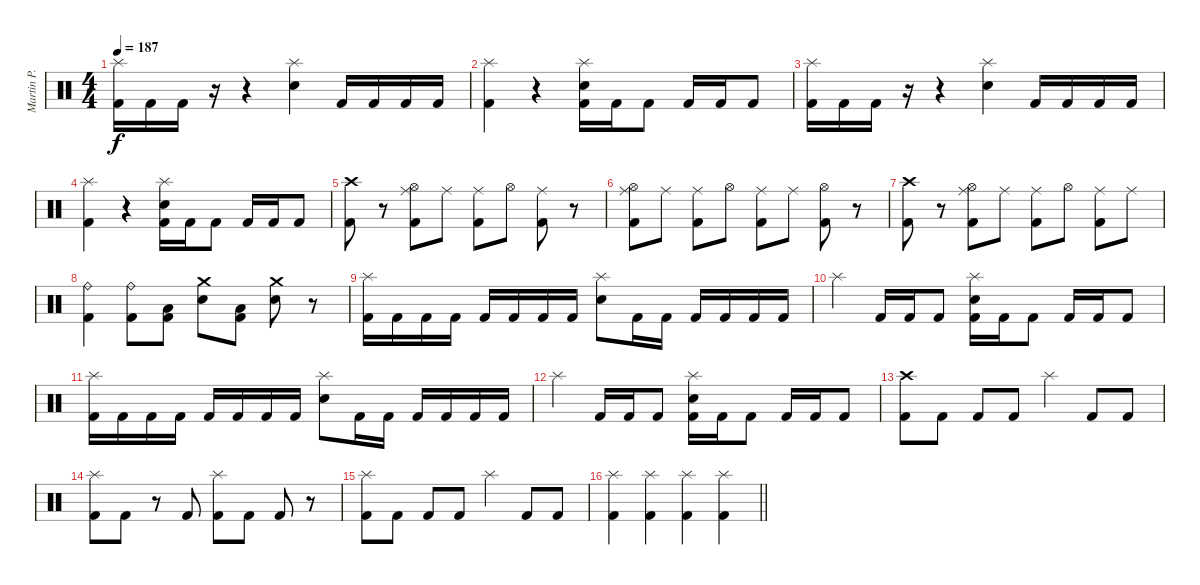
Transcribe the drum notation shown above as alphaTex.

\track ("Martin P." "Martin P.") {instrument percussion}
\staff {score}
\articulation defaults
\ts (4 4)
\tempo 187
\clef neutral
\ks c
("Splash (hit)" "Kick (hit) 2").16{dy f} "Kick (hit) 2".16 "Kick (hit) 2".16 r.16 r.4 ("Splash (hit)" "Electric Snare (hit)").4 "Kick (hit) 2".16 "Kick (hit) 2".16 "Kick (hit) 2".16 "Kick (hit) 2".16 |
("Splash (hit)" "Kick (hit) 2").4 r.4 ("Splash (hit)" "Electric Snare (hit)" "Kick (hit) 2").16 "Kick (hit) 2".16 "Kick (hit) 2".8 "Kick (hit) 2".16 "Kick (hit) 2".16 "Kick (hit) 2".8 |
("Splash (hit)" "Kick (hit) 2").16 "Kick (hit) 2".16 "Kick (hit) 2".16 r.16 r.4 ("Splash (hit)" "Electric Snare (hit)").4 "Kick (hit) 2".16 "Kick (hit) 2".16 "Kick (hit) 2".16 "Kick (hit) 2".16 |
("Splash (hit)" "Kick (hit) 2").4 r.4 ("Splash (hit)" "Electric Snare (hit)" "Kick (hit) 2").16 "Kick (hit) 2".16 "Kick (hit) 2".8 "Kick (hit) 2".16 "Kick (hit) 2".16 "Kick (hit) 2".8 |
("Kick (hit) 2" "Crash high (hit)").8 r.8 ("Kick (hit) 2" "Ride (middle)" "Hi-Hat (open)").8 "Ride (middle)".8 ("Kick (hit) 2" "Ride (middle)").8 "Hi-Hat (open)".8 ("Kick (hit) 2" "Ride (middle)").8 r.8 |
("Kick (hit) 2" "Hi-Hat (open)" "Ride (middle)").8 "Ride (middle)".8 ("Kick (hit) 2" "Ride (middle)").8 "Hi-Hat (open)".8 ("Kick (hit) 2" "Ride (middle)").8 "Ride (middle)".8 ("Kick (hit) 2" "Hi-Hat (open)").8 r.8 |
("Kick (hit) 2" "Crash high (hit)").8 r.8 ("Kick (hit) 2" "Ride (middle)" "Hi-Hat (open)").8 "Ride (middle)".8 ("Kick (hit) 2" "Ride (middle)").8 "Hi-Hat (open)".8 ("Kick (hit) 2" "Ride (middle)").8 "Ride (middle)".8 |
("Kick (hit) 2" "Ride (bell)").4 ("Kick (hit) 2" "Ride (bell)").8 ("Kick (hit) 2" "Low Floor Tom (hit)").8 ("Electric Snare (hit)" "Crash medium (hit)").8 ("Kick (hit) 2" "Low Floor Tom (hit)").8 ("Electric Snare (hit)" "Crash medium (hit)").8 r.8 |
("Splash (hit)" "Kick (hit) 2").16 "Kick (hit) 2".16 "Kick (hit) 2".16 "Kick (hit) 2".16 "Kick (hit) 2".16 "Kick (hit) 2".16 "Kick (hit) 2".16 "Kick (hit) 2".16 ("Splash (hit)" "Electric Snare (hit)").8 "Kick (hit) 2".16 "Kick (hit) 2".16 "Kick (hit) 2".16 "Kick (hit) 2".16 "Kick (hit) 2".16 "Kick (hit) 2".16 |
"Splash (hit)".4 "Kick (hit) 2".16 "Kick (hit) 2".16 "Kick (hit) 2".8 ("Splash (hit)" "Electric Snare (hit)" "Kick (hit) 2").16 "Kick (hit) 2".16 "Kick (hit) 2".8 "Kick (hit) 2".16 "Kick (hit) 2".16 "Kick (hit) 2".8 |
("Splash (hit)" "Kick (hit) 2").16 "Kick (hit) 2".16 "Kick (hit) 2".16 "Kick (hit) 2".16 "Kick (hit) 2".16 "Kick (hit) 2".16 "Kick (hit) 2".16 "Kick (hit) 2".16 ("Splash (hit)" "Electric Snare (hit)").8 "Kick (hit) 2".16 "Kick (hit) 2".16 "Kick (hit) 2".16 "Kick (hit) 2".16 "Kick (hit) 2".16 "Kick (hit) 2".16 |
"Splash (hit)".4 "Kick (hit) 2".16 "Kick (hit) 2".16 "Kick (hit) 2".8 ("Splash (hit)" "Electric Snare (hit)" "Kick (hit) 2").16 "Kick (hit) 2".16 "Kick (hit) 2".8 "Kick (hit) 2".16 "Kick (hit) 2".16 "Kick (hit) 2".8 |
("Kick (hit) 2" "Crash high (hit)").8 "Kick (hit) 2".8 "Kick (hit) 2".8 "Kick (hit) 2".8 "Splash (hit)".4 "Kick (hit) 2".8 "Kick (hit) 2".8 |
("Kick (hit) 2" "Splash (hit)").8 "Kick (hit) 2".8 r.8 "Kick (hit) 2".8 ("Kick (hit) 2" "Splash (hit)").8 "Kick (hit) 2".8 "Kick (hit) 2".8 r.8 |
("Kick (hit) 2" "Splash (hit)").8 "Kick (hit) 2".8 "Kick (hit) 2".8 "Kick (hit) 2".8 "Splash (hit)".4 "Kick (hit) 2".8 "Kick (hit) 2".8 |
\barLineRight lightlight
("Kick (hit) 2" "Splash (hit)").4 ("Kick (hit) 2" "Splash (hit)").4 ("Splash (hit)" "Kick (hit) 2").4 ("Kick (hit) 2" "Splash (hit)").4
